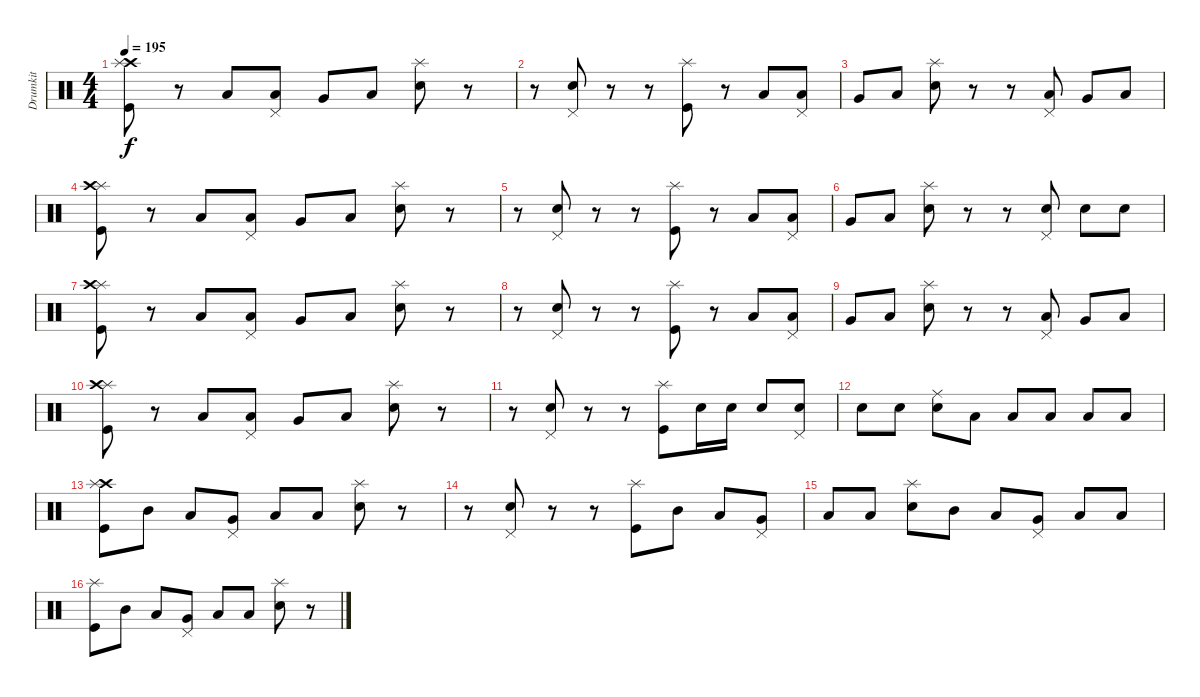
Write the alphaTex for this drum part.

\track ("Drumkit" "Drumkit") {instrument percussion}
\staff {score}
\articulation defaults
\ts (4 4)
\tempo 195
\clef neutral
\ks c
("Kick (hit)" "Crash high (hit)" "Splash (hit)").8{dy f} r.8 "Low Floor Tom (hit)".8 ("Low Tom (hit)" "Pedal Hi-Hat (hit)").8 "Very Low Tom (hit)".8 "Low Floor Tom (hit)".8 ("Snare (hit) 2" "Splash (hit)").8 r.8 |
r.8 ("Snare (hit) 2" "Pedal Hi-Hat (hit)").8 r.8 r.8 ("Kick (hit)" "Splash (hit)").8 r.8 "Low Floor Tom (hit)".8 ("Low Tom (hit)" "Pedal Hi-Hat (hit)").8 |
"Very Low Tom (hit)".8 "Low Floor Tom (hit)".8 ("Snare (hit) 2" "Splash (hit)").8 r.8 r.8 ("Low Tom (hit)" "Pedal Hi-Hat (hit)").8 "Very Low Tom (hit)".8 "Low Floor Tom (hit)".8 |
("Kick (hit)" "Splash (hit)" "Crash high (hit)").8 r.8 "Low Floor Tom (hit)".8 ("Low Tom (hit)" "Pedal Hi-Hat (hit)").8 "Very Low Tom (hit)".8 "Low Floor Tom (hit)".8 ("Snare (hit) 2" "Splash (hit)").8 r.8 |
r.8 ("Snare (hit) 2" "Pedal Hi-Hat (hit)").8 r.8 r.8 ("Kick (hit)" "Splash (hit)").8 r.8 "Low Floor Tom (hit)".8 ("Low Tom (hit)" "Pedal Hi-Hat (hit)").8 |
"Very Low Tom (hit)".8 "Low Floor Tom (hit)".8 ("Snare (hit) 2" "Splash (hit)").8 r.8 r.8 ("Snare (hit) 2" "Pedal Hi-Hat (hit)").8 "Snare (hit) 2".8 "Snare (hit) 2".8 |
("Kick (hit)" "Splash (hit)" "Crash high (hit)").8 r.8 "Low Floor Tom (hit)".8 ("Low Tom (hit)" "Pedal Hi-Hat (hit)").8 "Very Low Tom (hit)".8 "Low Floor Tom (hit)".8 ("Snare (hit) 2" "Splash (hit)").8 r.8 |
r.8 ("Snare (hit) 2" "Pedal Hi-Hat (hit)").8 r.8 r.8 ("Kick (hit)" "Splash (hit)").8 r.8 "Low Floor Tom (hit)".8 ("Low Tom (hit)" "Pedal Hi-Hat (hit)").8 |
"Very Low Tom (hit)".8 "Low Floor Tom (hit)".8 ("Snare (hit) 2" "Splash (hit)").8 r.8 r.8 ("Low Tom (hit)" "Pedal Hi-Hat (hit)").8 "Very Low Tom (hit)".8 "Low Floor Tom (hit)".8 |
("Kick (hit)" "Splash (hit)" "Crash high (hit)").8 r.8 "Low Floor Tom (hit)".8 ("Low Tom (hit)" "Pedal Hi-Hat (hit)").8 "Very Low Tom (hit)".8 "Low Floor Tom (hit)".8 ("Snare (hit) 2" "Splash (hit)").8 r.8 |
r.8 ("Snare (hit) 2" "Pedal Hi-Hat (hit)").8 r.8 r.8 ("Kick (hit)" "Splash (hit)").8 "Snare (hit) 2".16 "Snare (hit) 2".16 "Snare (hit) 2".8 ("Snare (hit) 2" "Pedal Hi-Hat (hit)").8 |
"Snare (hit) 2".8 "Snare (hit) 2".8 ("Snare (hit) 2" "Ride (middle)").8 "Low Floor Tom (hit)".8 "Low Floor Tom (hit)".8 "Low Floor Tom (hit)".8 "Low Floor Tom (hit)".8 "Low Floor Tom (hit)".8 |
("Kick (hit)" "Crash high (hit)" "Splash (hit)").8 "Mid Tom (hit)".8 "Low Tom (hit)".8 ("Very Low Tom (hit)" "Pedal Hi-Hat (hit)").8 "Low Floor Tom (hit)".8 "Low Floor Tom (hit)".8 ("Snare (hit) 2" "Splash (hit)").8 r.8 |
r.8 ("Snare (hit) 2" "Pedal Hi-Hat (hit)").8 r.8 r.8 ("Kick (hit)" "Splash (hit)").8 "Mid Tom (hit)".8 "Low Tom (hit)".8 ("Very Low Tom (hit)" "Pedal Hi-Hat (hit)").8 |
"Low Floor Tom (hit)".8 "Low Floor Tom (hit)".8 ("Snare (hit) 2" "Splash (hit)").8 "Mid Tom (hit)".8 "Low Tom (hit)".8 ("Very Low Tom (hit)" "Pedal Hi-Hat (hit)").8 "Low Floor Tom (hit)".8 "Low Floor Tom (hit)".8 |
("Kick (hit)" "Splash (hit)").8 "Mid Tom (hit)".8 "Low Tom (hit)".8 ("Very Low Tom (hit)" "Pedal Hi-Hat (hit)").8 "Low Floor Tom (hit)".8 "Low Floor Tom (hit)".8 ("Snare (hit) 2" "Splash (hit)").8 r.8
